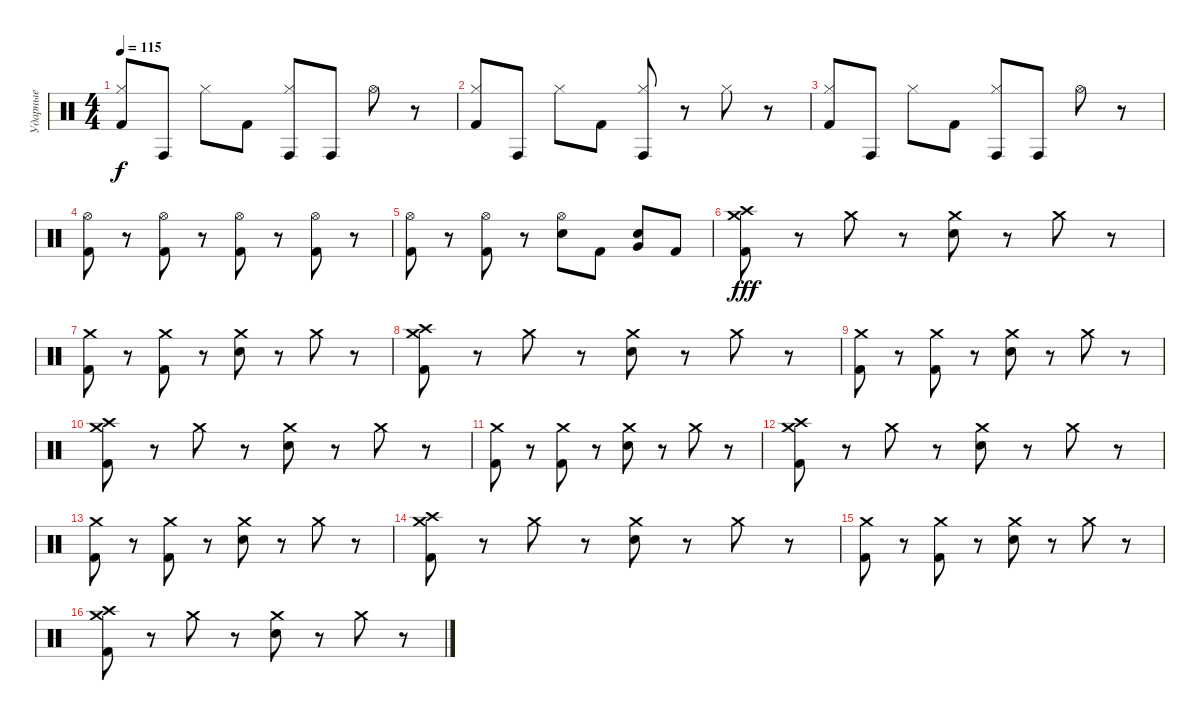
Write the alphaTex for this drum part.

\track ("Ударные" "Ударные") {instrument percussion}
\staff {score}
\articulation defaults
\ts (4 4)
\tempo 115
\clef neutral
\ks c
("Hi-Hat (closed)" "Kick (hit) 2").8{dy f} "Conga high (hit)".8 "Hi-Hat (closed)".8 "Kick (hit) 2".8 ("Hi-Hat (closed)" "Conga high (hit)").8 "Conga high (hit)".8 "Hi-Hat (open)".8 r.8 |
("Hi-Hat (closed)" "Kick (hit) 2").8 "Conga high (hit)".8 "Hi-Hat (closed)".8 "Kick (hit) 2".8 ("Hi-Hat (closed)" "Conga high (hit)").8 r.8 "Hi-Hat (closed)".8 r.8 |
("Hi-Hat (closed)" "Kick (hit) 2").8 "Conga high (hit)".8 "Hi-Hat (closed)".8 "Kick (hit) 2".8 ("Hi-Hat (closed)" "Conga high (hit)").8 "Conga high (hit)".8 "Hi-Hat (open)".8 r.8 |
("Hi-Hat (open)" "Kick (hit) 2").8 r.8 ("Hi-Hat (open)" "Kick (hit) 2").8 r.8 ("Hi-Hat (open)" "Kick (hit) 2").8 r.8 ("Hi-Hat (open)" "Kick (hit) 2").8 r.8 |
("Hi-Hat (open)" "Kick (hit) 2").8 r.8 ("Hi-Hat (open)" "Kick (hit) 2").8 r.8 ("Hi-Hat (open)" "Snare (hit) 2").8 "Kick (hit) 2".8 ("Very Low Tom (hit)" "Snare (hit) 2").8 "Kick (hit) 2".8 |
("Crash high (hit)" "Crash medium (hit)" "Kick (hit) 2").8{dy fff} r.8 "Crash medium (hit)".8 r.8 ("Crash medium (hit)" "Snare (hit) 2").8 r.8 "Crash medium (hit)".8 r.8 |
("Crash medium (hit)" "Kick (hit) 2").8 r.8 ("Crash medium (hit)" "Kick (hit) 2").8 r.8 ("Crash medium (hit)" "Snare (hit) 2").8 r.8 "Crash medium (hit)".8 r.8 |
("Crash high (hit)" "Crash medium (hit)" "Kick (hit) 2").8 r.8 "Crash medium (hit)".8 r.8 ("Crash medium (hit)" "Snare (hit) 2").8 r.8 "Crash medium (hit)".8 r.8 |
("Crash medium (hit)" "Kick (hit) 2").8 r.8 ("Crash medium (hit)" "Kick (hit) 2").8 r.8 ("Crash medium (hit)" "Snare (hit) 2").8 r.8 "Crash medium (hit)".8 r.8 |
("Crash high (hit)" "Crash medium (hit)" "Kick (hit) 2").8 r.8 "Crash medium (hit)".8 r.8 ("Crash medium (hit)" "Snare (hit) 2").8 r.8 "Crash medium (hit)".8 r.8 |
("Crash medium (hit)" "Kick (hit) 2").8 r.8 ("Crash medium (hit)" "Kick (hit) 2").8 r.8 ("Crash medium (hit)" "Snare (hit) 2").8 r.8 "Crash medium (hit)".8 r.8 |
("Crash high (hit)" "Crash medium (hit)" "Kick (hit) 2").8 r.8 "Crash medium (hit)".8 r.8 ("Crash medium (hit)" "Snare (hit) 2").8 r.8 "Crash medium (hit)".8 r.8 |
("Crash medium (hit)" "Kick (hit) 2").8 r.8 ("Crash medium (hit)" "Kick (hit) 2").8 r.8 ("Crash medium (hit)" "Snare (hit) 2").8 r.8 "Crash medium (hit)".8 r.8 |
("Crash high (hit)" "Crash medium (hit)" "Kick (hit) 2").8 r.8 "Crash medium (hit)".8 r.8 ("Crash medium (hit)" "Snare (hit) 2").8 r.8 "Crash medium (hit)".8 r.8 |
("Crash medium (hit)" "Kick (hit) 2").8 r.8 ("Crash medium (hit)" "Kick (hit) 2").8 r.8 ("Crash medium (hit)" "Snare (hit) 2").8 r.8 "Crash medium (hit)".8 r.8 |
("Crash high (hit)" "Crash medium (hit)" "Kick (hit) 2").8 r.8 "Crash medium (hit)".8 r.8 ("Crash medium (hit)" "Snare (hit) 2").8 r.8 "Crash medium (hit)".8 r.8
